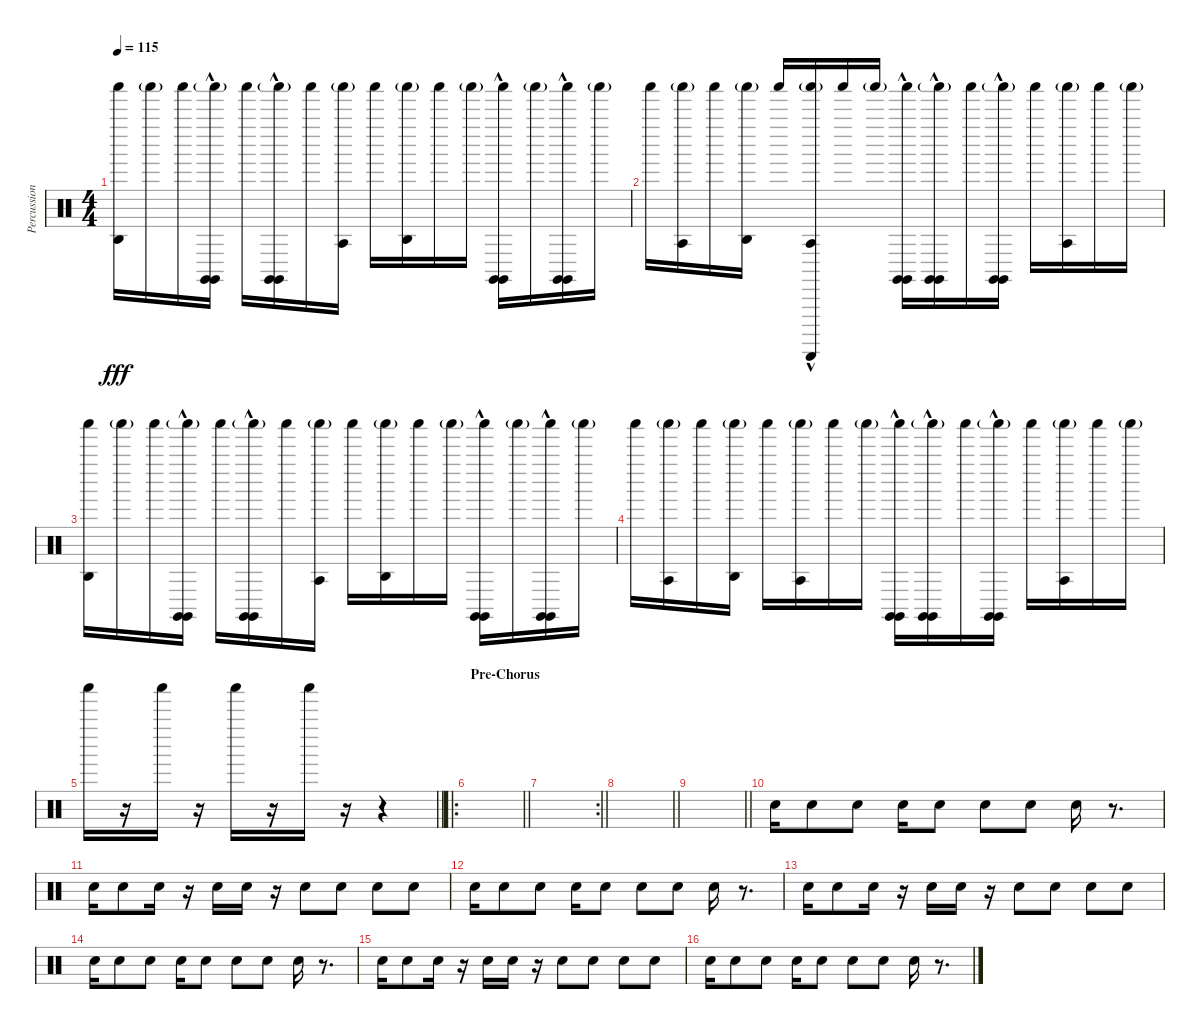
\track ("Percussion 1" "Percussion") {instrument percussion}
\staff {score}
\articulation defaults
\ts (4 4)
\tempo 115
\clef neutral
\ks c
("Shaker (hit)" "Agogo high (hit)").16{dy fff} "Shaker (hit)"{g}.16 "Shaker (hit)".16 ("Shaker (hit)"{g} "Claves (hit)"{hac} "Claves (hit)"{hac}).16 "Shaker (hit)".16 ("Shaker (hit)"{g} "Claves (hit)"{hac} "Claves (hit)"{hac}).16 "Shaker (hit)".16 ("Shaker (hit)"{g} "Agogo tow (hit)").16 "Shaker (hit)".16 ("Shaker (hit)"{g} "Agogo high (hit)").16 "Shaker (hit)".16 "Shaker (hit)"{g}.16 ("Shaker (hit)" "Claves (hit)"{hac} "Claves (hit)"{hac}).16 "Shaker (hit)"{g}.16 ("Shaker (hit)" "Claves (hit)"{hac} "Claves (hit)"{hac}).16 "Shaker (hit)"{g}.16 |
"Shaker (hit)".16 ("Shaker (hit)"{g} "Agogo tow (hit)").16 "Shaker (hit)".16 ("Shaker (hit)"{g} "Agogo high (hit)").16 "Shaker (hit)".16 ("Shaker (hit)"{g} "Guiro (scrap-return)"{hac} "Agogo tow (hit)").16 "Shaker (hit)".16 "Shaker (hit)"{g}.16 ("Shaker (hit)" "Claves (hit)"{hac} "Claves (hit)"{hac}).16 ("Shaker (hit)"{g} "Claves (hit)"{hac} "Claves (hit)"{hac}).16 "Shaker (hit)".16 ("Shaker (hit)"{g} "Claves (hit)"{hac} "Claves (hit)"{hac}).16 "Shaker (hit)".16 ("Shaker (hit)"{g} "Agogo tow (hit)").16 "Shaker (hit)".16 "Shaker (hit)"{g}.16 |
("Shaker (hit)" "Agogo high (hit)").16 "Shaker (hit)"{g}.16 "Shaker (hit)".16 ("Shaker (hit)"{g} "Claves (hit)"{hac} "Claves (hit)"{hac}).16 "Shaker (hit)".16 ("Shaker (hit)"{g} "Claves (hit)"{hac} "Claves (hit)"{hac}).16 "Shaker (hit)".16 ("Shaker (hit)"{g} "Agogo tow (hit)").16 "Shaker (hit)".16 ("Shaker (hit)"{g} "Agogo high (hit)").16 "Shaker (hit)".16 "Shaker (hit)"{g}.16 ("Shaker (hit)" "Claves (hit)"{hac} "Claves (hit)"{hac}).16 "Shaker (hit)"{g}.16 ("Shaker (hit)" "Claves (hit)"{hac} "Claves (hit)"{hac}).16 "Shaker (hit)"{g}.16 |
"Shaker (hit)".16 ("Shaker (hit)"{g} "Agogo tow (hit)").16 "Shaker (hit)".16 ("Shaker (hit)"{g} "Agogo high (hit)").16 "Shaker (hit)".16 ("Shaker (hit)"{g} "Agogo tow (hit)").16 "Shaker (hit)".16 "Shaker (hit)"{g}.16 ("Shaker (hit)" "Claves (hit)"{hac} "Claves (hit)"{hac}).16 ("Shaker (hit)"{g} "Claves (hit)"{hac} "Claves (hit)"{hac}).16 "Shaker (hit)".16 ("Shaker (hit)"{g} "Claves (hit)"{hac} "Claves (hit)"{hac}).16 "Shaker (hit)".16 ("Shaker (hit)"{g} "Agogo tow (hit)").16 "Shaker (hit)".16 "Shaker (hit)"{g}.16 |
\barLineRight lightlight "Shaker (hit)".16
r.16 "Shaker (hit)".16 r.16 "Shaker (hit)".16 r.16 "Shaker (hit)".16 r.16 r.4 |
\ro
\section ("" "Pre-Chorus")
\barLineRight lightlight
|
\rc 2
\barLineRight lightlight
|
\barLineRight lightlight
|
\barLineRight lightlight
|
"Hand Clap (hit)".16 "Hand Clap (hit)".8 "Hand Clap (hit)".8 "Hand Clap (hit)".16 "Hand Clap (hit)".8 "Hand Clap (hit)".8 "Hand Clap (hit)".8 "Hand Clap (hit)".16 r.8{d} |
"Hand Clap (hit)".16 "Hand Clap (hit)".8 "Hand Clap (hit)".16 r.16 "Hand Clap (hit)".16 "Hand Clap (hit)".16 r.16 "Hand Clap (hit)".8 "Hand Clap (hit)".8 "Hand Clap (hit)".8 "Hand Clap (hit)".8 |
"Hand Clap (hit)".16 "Hand Clap (hit)".8 "Hand Clap (hit)".8 "Hand Clap (hit)".16 "Hand Clap (hit)".8 "Hand Clap (hit)".8 "Hand Clap (hit)".8 "Hand Clap (hit)".16 r.8{d} |
"Hand Clap (hit)".16 "Hand Clap (hit)".8 "Hand Clap (hit)".16 r.16 "Hand Clap (hit)".16 "Hand Clap (hit)".16 r.16 "Hand Clap (hit)".8 "Hand Clap (hit)".8 "Hand Clap (hit)".8 "Hand Clap (hit)".8 |
"Hand Clap (hit)".16 "Hand Clap (hit)".8 "Hand Clap (hit)".8 "Hand Clap (hit)".16 "Hand Clap (hit)".8 "Hand Clap (hit)".8 "Hand Clap (hit)".8 "Hand Clap (hit)".16 r.8{d} |
"Hand Clap (hit)".16 "Hand Clap (hit)".8 "Hand Clap (hit)".16 r.16 "Hand Clap (hit)".16 "Hand Clap (hit)".16 r.16 "Hand Clap (hit)".8 "Hand Clap (hit)".8 "Hand Clap (hit)".8 "Hand Clap (hit)".8 |
"Hand Clap (hit)".16 "Hand Clap (hit)".8 "Hand Clap (hit)".8 "Hand Clap (hit)".16 "Hand Clap (hit)".8 "Hand Clap (hit)".8 "Hand Clap (hit)".8 "Hand Clap (hit)".16 r.8{d}
